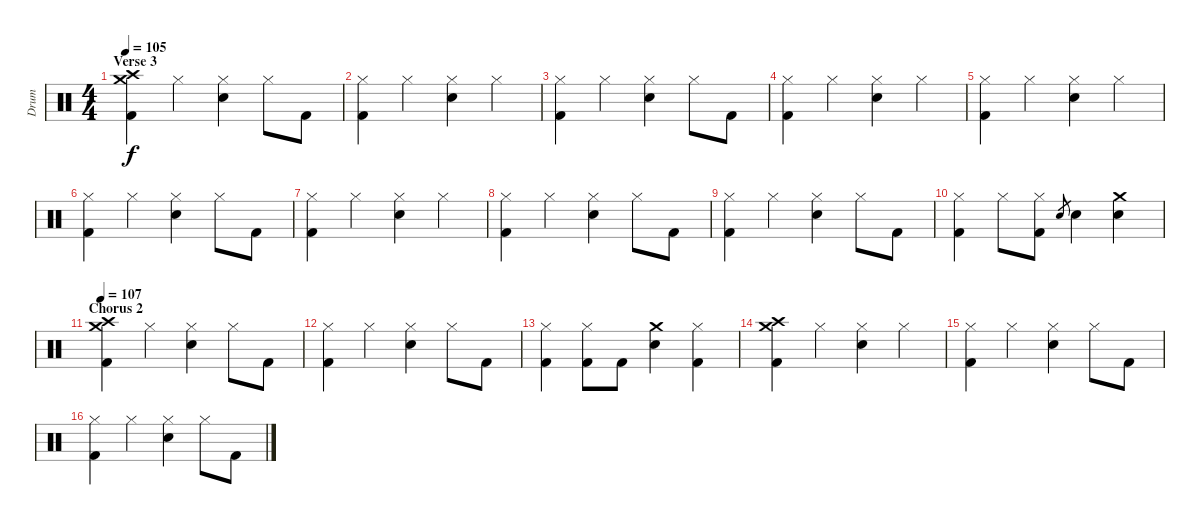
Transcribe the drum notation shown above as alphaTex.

\track ("Drum" "Drum") {instrument percussion}
\staff {score}
\articulation defaults
\ts (4 4)
\section ("" "Verse 3")
\tempo 105
\clef neutral
\ks c
("Kick (hit) 2" "Crash medium (hit)" "Crash high (hit)").4{dy f} "Hi-Hat (closed)".4 ("Hi-Hat (closed)" "Snare (hit) 2").4 "Hi-Hat (closed)".8 "Kick (hit) 2".8 |
("Hi-Hat (closed)" "Kick (hit) 2").4 "Hi-Hat (closed)".4 ("Hi-Hat (closed)" "Snare (hit) 2").4 "Hi-Hat (closed)".4 |
("Hi-Hat (closed)" "Kick (hit) 2").4 "Hi-Hat (closed)".4 ("Hi-Hat (closed)" "Snare (hit) 2").4 "Hi-Hat (closed)".8 "Kick (hit) 2".8 |
("Hi-Hat (closed)" "Kick (hit) 2").4 "Hi-Hat (closed)".4 ("Hi-Hat (closed)" "Snare (hit) 2").4 "Hi-Hat (closed)".4 |
("Hi-Hat (closed)" "Kick (hit) 2").4 "Hi-Hat (closed)".4 ("Hi-Hat (closed)" "Snare (hit) 2").4 "Hi-Hat (closed)".4 |
("Hi-Hat (closed)" "Kick (hit) 2").4 "Hi-Hat (closed)".4 ("Hi-Hat (closed)" "Snare (hit) 2").4 "Hi-Hat (closed)".8 "Kick (hit) 2".8 |
("Hi-Hat (closed)" "Kick (hit) 2").4 "Hi-Hat (closed)".4 ("Hi-Hat (closed)" "Snare (hit) 2").4 "Hi-Hat (closed)".4 |
("Hi-Hat (closed)" "Kick (hit) 2").4 "Hi-Hat (closed)".4 ("Hi-Hat (closed)" "Snare (hit) 2").4 "Hi-Hat (closed)".8 "Kick (hit) 2".8 |
("Hi-Hat (closed)" "Kick (hit) 2").4 "Hi-Hat (closed)".4 ("Hi-Hat (closed)" "Snare (hit) 2").4 "Hi-Hat (closed)".8 "Kick (hit) 2".8 |
("Hi-Hat (closed)" "Kick (hit) 2").4 "Hi-Hat (closed)".8 ("Hi-Hat (closed)" "Kick (hit) 2").8 "Snare (hit) 2".8{gr} "Snare (hit) 2".4 ("Snare (hit) 2" "Crash medium (hit)").4 |
\section ("" "Chorus 2")
\tempo 107
("Kick (hit) 2" "Crash medium (hit)" "Crash high (hit)").4 "Hi-Hat (closed)".4 ("Hi-Hat (closed)" "Snare (hit) 2").4 "Hi-Hat (closed)".8 "Kick (hit) 2".8 |
("Hi-Hat (closed)" "Kick (hit) 2").4 "Hi-Hat (closed)".4 ("Hi-Hat (closed)" "Snare (hit) 2").4 "Hi-Hat (closed)".8 "Kick (hit) 2".8 |
("Hi-Hat (closed)" "Kick (hit) 2").4 ("Hi-Hat (closed)" "Kick (hit) 2").8 "Kick (hit) 2".8 ("Snare (hit) 2" "Crash medium (hit)").4 ("Hi-Hat (closed)" "Kick (hit) 2").4 |
("Kick (hit) 2" "Crash medium (hit)" "Crash high (hit)").4 "Hi-Hat (closed)".4 ("Hi-Hat (closed)" "Snare (hit) 2").4 "Hi-Hat (closed)".4 |
("Hi-Hat (closed)" "Kick (hit) 2").4 "Hi-Hat (closed)".4 ("Hi-Hat (closed)" "Snare (hit) 2").4 "Hi-Hat (closed)".8 "Kick (hit) 2".8 |
("Hi-Hat (closed)" "Kick (hit) 2").4 "Hi-Hat (closed)".4 ("Hi-Hat (closed)" "Snare (hit) 2").4 "Hi-Hat (closed)".8 "Kick (hit) 2".8
